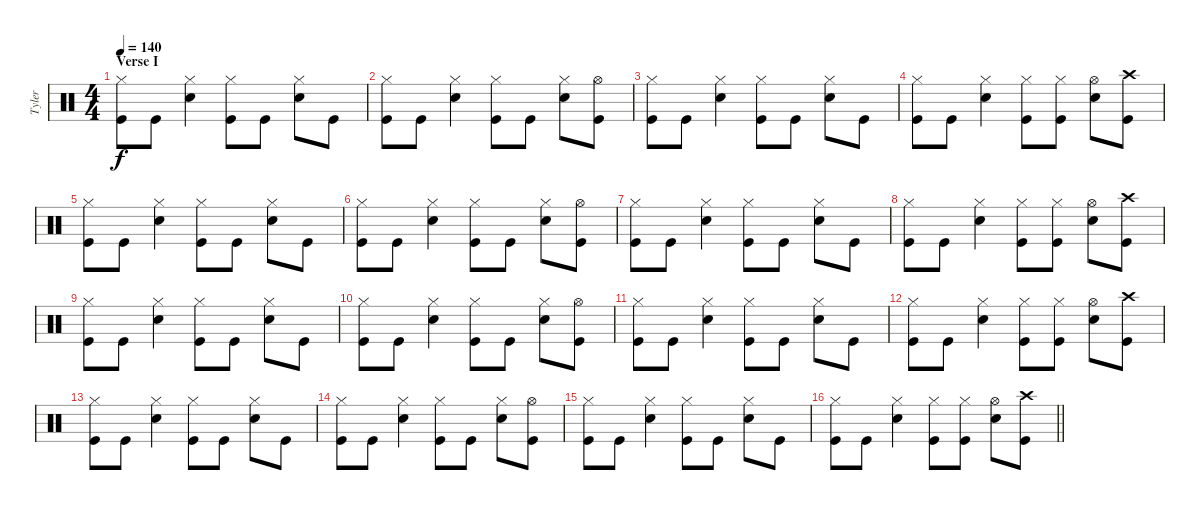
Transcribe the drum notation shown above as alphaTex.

\track ("Tyler" "Tyler") {instrument percussion}
\staff {score}
\articulation defaults
\ts (4 4)
\section ("" "Verse I")
\tempo 140
\clef neutral
\ks c
("Hi-Hat (closed)" "Kick (hit)").8{dy f} "Kick (hit)".8 ("Hi-Hat (closed)" "Snare (hit) 2").4 ("Hi-Hat (closed)" "Kick (hit)").8 "Kick (hit)".8 ("Hi-Hat (closed)" "Snare (hit) 2").8 "Kick (hit)".8 |
("Hi-Hat (closed)" "Kick (hit)").8 "Kick (hit)".8 ("Hi-Hat (closed)" "Snare (hit) 2").4 ("Hi-Hat (closed)" "Kick (hit)").8 "Kick (hit)".8 ("Hi-Hat (closed)" "Snare (hit) 2").8 ("Hi-Hat (open)" "Kick (hit)").8 |
("Hi-Hat (closed)" "Kick (hit)").8 "Kick (hit)".8 ("Hi-Hat (closed)" "Snare (hit) 2").4 ("Hi-Hat (closed)" "Kick (hit)").8 "Kick (hit)".8 ("Hi-Hat (closed)" "Snare (hit) 2").8 "Kick (hit)".8 |
("Hi-Hat (closed)" "Kick (hit)").8 "Kick (hit)".8 ("Hi-Hat (closed)" "Snare (hit) 2").4 ("Hi-Hat (closed)" "Kick (hit)").8 ("Hi-Hat (closed)" "Kick (hit)").8 ("Hi-Hat (open)" "Snare (hit) 2").8 ("Crash high (hit)" "Kick (hit)").8 |
("Hi-Hat (closed)" "Kick (hit)").8 "Kick (hit)".8 ("Hi-Hat (closed)" "Snare (hit) 2").4 ("Hi-Hat (closed)" "Kick (hit)").8 "Kick (hit)".8 ("Hi-Hat (closed)" "Snare (hit) 2").8 "Kick (hit)".8 |
("Hi-Hat (closed)" "Kick (hit)").8 "Kick (hit)".8 ("Hi-Hat (closed)" "Snare (hit) 2").4 ("Hi-Hat (closed)" "Kick (hit)").8 "Kick (hit)".8 ("Hi-Hat (closed)" "Snare (hit) 2").8 ("Hi-Hat (open)" "Kick (hit)").8 |
("Hi-Hat (closed)" "Kick (hit)").8 "Kick (hit)".8 ("Hi-Hat (closed)" "Snare (hit) 2").4 ("Hi-Hat (closed)" "Kick (hit)").8 "Kick (hit)".8 ("Hi-Hat (closed)" "Snare (hit) 2").8 "Kick (hit)".8 |
("Hi-Hat (closed)" "Kick (hit)").8 "Kick (hit)".8 ("Hi-Hat (closed)" "Snare (hit) 2").4 ("Hi-Hat (closed)" "Kick (hit)").8 ("Hi-Hat (closed)" "Kick (hit)").8 ("Hi-Hat (open)" "Snare (hit) 2").8 ("Crash high (hit)" "Kick (hit)").8 |
("Hi-Hat (closed)" "Kick (hit)").8 "Kick (hit)".8 ("Hi-Hat (closed)" "Snare (hit) 2").4 ("Hi-Hat (closed)" "Kick (hit)").8 "Kick (hit)".8 ("Hi-Hat (closed)" "Snare (hit) 2").8 "Kick (hit)".8 |
("Hi-Hat (closed)" "Kick (hit)").8 "Kick (hit)".8 ("Hi-Hat (closed)" "Snare (hit) 2").4 ("Hi-Hat (closed)" "Kick (hit)").8 "Kick (hit)".8 ("Hi-Hat (closed)" "Snare (hit) 2").8 ("Hi-Hat (open)" "Kick (hit)").8 |
("Hi-Hat (closed)" "Kick (hit)").8 "Kick (hit)".8 ("Hi-Hat (closed)" "Snare (hit) 2").4 ("Hi-Hat (closed)" "Kick (hit)").8 "Kick (hit)".8 ("Hi-Hat (closed)" "Snare (hit) 2").8 "Kick (hit)".8 |
("Hi-Hat (closed)" "Kick (hit)").8 "Kick (hit)".8 ("Hi-Hat (closed)" "Snare (hit) 2").4 ("Hi-Hat (closed)" "Kick (hit)").8 ("Hi-Hat (closed)" "Kick (hit)").8 ("Hi-Hat (open)" "Snare (hit) 2").8 ("Crash high (hit)" "Kick (hit)").8 |
("Hi-Hat (closed)" "Kick (hit)").8 "Kick (hit)".8 ("Hi-Hat (closed)" "Snare (hit) 2").4 ("Hi-Hat (closed)" "Kick (hit)").8 "Kick (hit)".8 ("Hi-Hat (closed)" "Snare (hit) 2").8 "Kick (hit)".8 |
("Hi-Hat (closed)" "Kick (hit)").8 "Kick (hit)".8 ("Hi-Hat (closed)" "Snare (hit) 2").4 ("Hi-Hat (closed)" "Kick (hit)").8 "Kick (hit)".8 ("Hi-Hat (closed)" "Snare (hit) 2").8 ("Hi-Hat (open)" "Kick (hit)").8 |
("Hi-Hat (closed)" "Kick (hit)").8 "Kick (hit)".8 ("Hi-Hat (closed)" "Snare (hit) 2").4 ("Hi-Hat (closed)" "Kick (hit)").8 "Kick (hit)".8 ("Hi-Hat (closed)" "Snare (hit) 2").8 "Kick (hit)".8 |
\barLineRight lightlight
("Hi-Hat (closed)" "Kick (hit)").8 "Kick (hit)".8 ("Hi-Hat (closed)" "Snare (hit) 2").4 ("Hi-Hat (closed)" "Kick (hit)").8 ("Hi-Hat (closed)" "Kick (hit)").8 ("Hi-Hat (open)" "Snare (hit) 2").8 ("Crash high (hit)" "Kick (hit)").8
